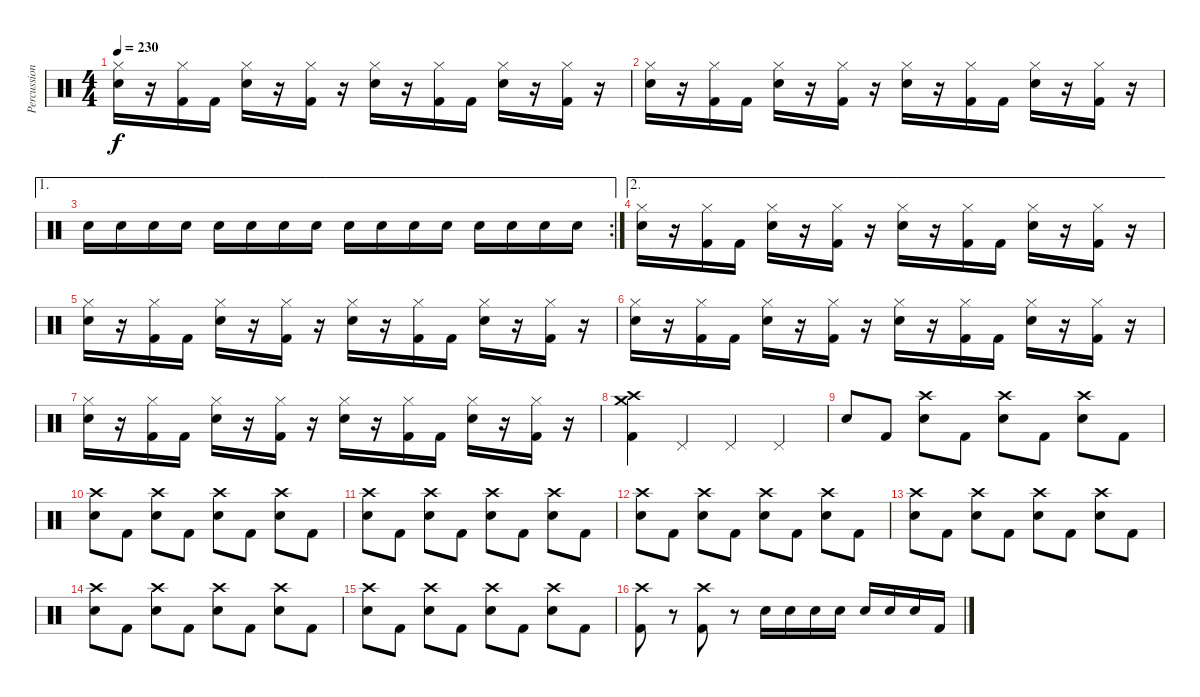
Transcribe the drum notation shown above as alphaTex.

\track ("Percussion" "Percussion") {instrument percussion}
\staff {score}
\articulation defaults
\ts (4 4)
\tempo 230
\clef neutral
\ks c
("Hi-Hat (closed)" "Electric Snare (hit)").16{dy f} r.16 ("Hi-Hat (closed)" "Kick (hit) 2").16 "Kick (hit) 2".16 ("Hi-Hat (closed)" "Electric Snare (hit)").16 r.16 ("Hi-Hat (closed)" "Kick (hit) 2").16 r.16 ("Hi-Hat (closed)" "Electric Snare (hit)").16 r.16 ("Hi-Hat (closed)" "Kick (hit) 2").16 "Kick (hit) 2".16 ("Hi-Hat (closed)" "Electric Snare (hit)").16 r.16 ("Hi-Hat (closed)" "Kick (hit) 2").16 r.16 |
("Hi-Hat (closed)" "Electric Snare (hit)").16 r.16 ("Hi-Hat (closed)" "Kick (hit) 2").16 "Kick (hit) 2".16 ("Hi-Hat (closed)" "Electric Snare (hit)").16 r.16 ("Hi-Hat (closed)" "Kick (hit) 2").16 r.16 ("Hi-Hat (closed)" "Electric Snare (hit)").16 r.16 ("Hi-Hat (closed)" "Kick (hit) 2").16 "Kick (hit) 2".16 ("Hi-Hat (closed)" "Electric Snare (hit)").16 r.16 ("Hi-Hat (closed)" "Kick (hit) 2").16 r.16 |
\ae 1
\rc 2 "Electric Snare (hit)".16 "Electric Snare (hit)".16 "Electric Snare (hit)".16 "Electric Snare (hit)".16 "Electric Snare (hit)".16 "Electric Snare (hit)".16 "Electric Snare (hit)".16 "Electric Snare (hit)".16 "Electric Snare (hit)".16 "Electric Snare (hit)".16 "Electric Snare (hit)".16 "Electric Snare (hit)".16 "Electric Snare (hit)".16 "Electric Snare (hit)".16 "Electric Snare (hit)".16 "Electric Snare (hit)".16
|
\ae 2
("Hi-Hat (closed)" "Electric Snare (hit)").16 r.16 ("Hi-Hat (closed)" "Kick (hit) 2").16 "Kick (hit) 2".16 ("Hi-Hat (closed)" "Electric Snare (hit)").16 r.16 ("Hi-Hat (closed)" "Kick (hit) 2").16 r.16 ("Hi-Hat (closed)" "Electric Snare (hit)").16 r.16 ("Hi-Hat (closed)" "Kick (hit) 2").16 "Kick (hit) 2".16 ("Hi-Hat (closed)" "Electric Snare (hit)").16 r.16 ("Hi-Hat (closed)" "Kick (hit) 2").16 r.16 |
("Hi-Hat (closed)" "Electric Snare (hit)").16 r.16 ("Hi-Hat (closed)" "Kick (hit) 2").16 "Kick (hit) 2".16 ("Hi-Hat (closed)" "Electric Snare (hit)").16 r.16 ("Hi-Hat (closed)" "Kick (hit) 2").16 r.16 ("Hi-Hat (closed)" "Electric Snare (hit)").16 r.16 ("Hi-Hat (closed)" "Kick (hit) 2").16 "Kick (hit) 2".16 ("Hi-Hat (closed)" "Electric Snare (hit)").16 r.16 ("Hi-Hat (closed)" "Kick (hit) 2").16 r.16 |
("Hi-Hat (closed)" "Electric Snare (hit)").16 r.16 ("Hi-Hat (closed)" "Kick (hit) 2").16 "Kick (hit) 2".16 ("Hi-Hat (closed)" "Electric Snare (hit)").16 r.16 ("Hi-Hat (closed)" "Kick (hit) 2").16 r.16 ("Hi-Hat (closed)" "Electric Snare (hit)").16 r.16 ("Hi-Hat (closed)" "Kick (hit) 2").16 "Kick (hit) 2".16 ("Hi-Hat (closed)" "Electric Snare (hit)").16 r.16 ("Hi-Hat (closed)" "Kick (hit) 2").16 r.16 |
("Hi-Hat (closed)" "Electric Snare (hit)").16 r.16 ("Hi-Hat (closed)" "Kick (hit) 2").16 "Kick (hit) 2".16 ("Hi-Hat (closed)" "Electric Snare (hit)").16 r.16 ("Hi-Hat (closed)" "Kick (hit) 2").16 r.16 ("Hi-Hat (closed)" "Electric Snare (hit)").16 r.16 ("Hi-Hat (closed)" "Kick (hit) 2").16 "Kick (hit) 2".16 ("Hi-Hat (closed)" "Electric Snare (hit)").16 r.16 ("Hi-Hat (closed)" "Kick (hit) 2").16 r.16 |
("Crash high (hit)" "Crash medium (hit)" "Kick (hit) 2").4 "Pedal Hi-Hat (hit)".4 "Pedal Hi-Hat (hit)".4 "Pedal Hi-Hat (hit)".4 |
"Electric Snare (hit)".8 "Kick (hit) 2".8 ("Crash high (hit)" "Electric Snare (hit)").8 "Kick (hit) 2".8 ("Crash high (hit)" "Electric Snare (hit)").8 "Kick (hit) 2".8 ("Crash high (hit)" "Electric Snare (hit)").8 "Kick (hit) 2".8 |
("Crash high (hit)" "Electric Snare (hit)").8 "Kick (hit) 2".8 ("Crash high (hit)" "Electric Snare (hit)").8 "Kick (hit) 2".8 ("Crash high (hit)" "Electric Snare (hit)").8 "Kick (hit) 2".8 ("Crash high (hit)" "Electric Snare (hit)").8 "Kick (hit) 2".8 |
("Crash high (hit)" "Electric Snare (hit)").8 "Kick (hit) 2".8 ("Crash high (hit)" "Electric Snare (hit)").8 "Kick (hit) 2".8 ("Crash high (hit)" "Electric Snare (hit)").8 "Kick (hit) 2".8 ("Crash high (hit)" "Electric Snare (hit)").8 "Kick (hit) 2".8 |
("Crash high (hit)" "Electric Snare (hit)").8 "Kick (hit) 2".8 ("Crash high (hit)" "Electric Snare (hit)").8 "Kick (hit) 2".8 ("Crash high (hit)" "Electric Snare (hit)").8 "Kick (hit) 2".8 ("Crash high (hit)" "Electric Snare (hit)").8 "Kick (hit) 2".8 |
("Crash high (hit)" "Electric Snare (hit)").8 "Kick (hit) 2".8 ("Crash high (hit)" "Electric Snare (hit)").8 "Kick (hit) 2".8 ("Crash high (hit)" "Electric Snare (hit)").8 "Kick (hit) 2".8 ("Crash high (hit)" "Electric Snare (hit)").8 "Kick (hit) 2".8 |
("Crash high (hit)" "Electric Snare (hit)").8 "Kick (hit) 2".8 ("Crash high (hit)" "Electric Snare (hit)").8 "Kick (hit) 2".8 ("Crash high (hit)" "Electric Snare (hit)").8 "Kick (hit) 2".8 ("Crash high (hit)" "Electric Snare (hit)").8 "Kick (hit) 2".8 |
("Crash high (hit)" "Electric Snare (hit)").8 "Kick (hit) 2".8 ("Crash high (hit)" "Electric Snare (hit)").8 "Kick (hit) 2".8 ("Crash high (hit)" "Electric Snare (hit)").8 "Kick (hit) 2".8 ("Crash high (hit)" "Electric Snare (hit)").8 "Kick (hit) 2".8 |
("Crash high (hit)" "Kick (hit) 2").8 r.8 ("Crash high (hit)" "Kick (hit) 2").8 r.8 "Electric Snare (hit)".16 "Electric Snare (hit)".16 "Electric Snare (hit)".16 "Electric Snare (hit)".16 "Electric Snare (hit)".16 "Electric Snare (hit)".16 "Electric Snare (hit)".16 "Kick (hit) 2".16
